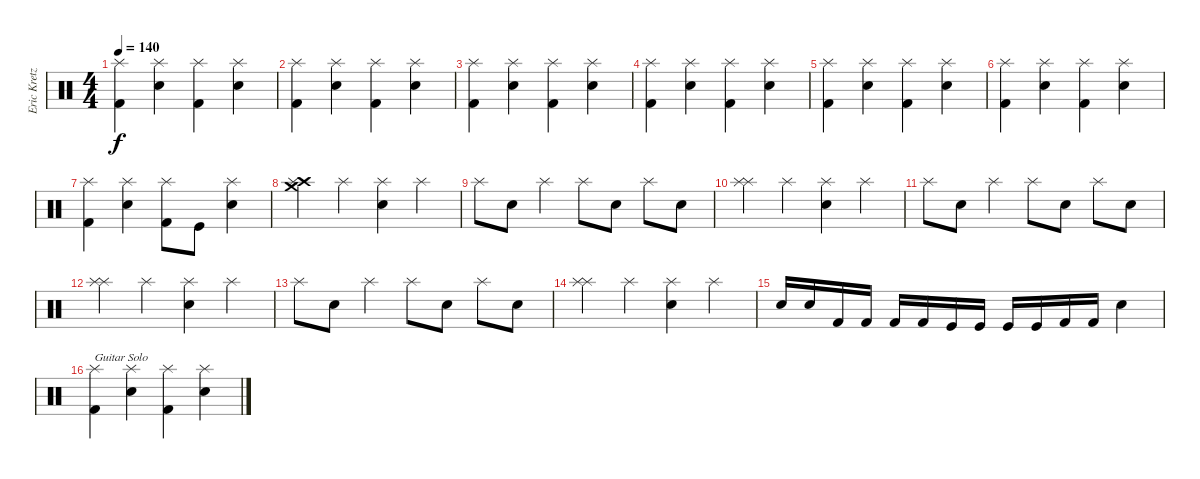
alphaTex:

\track ("Eric Kretz" "Eric Kretz") {instrument percussion}
\staff {score}
\articulation defaults
\ts (4 4)
\tempo 140
\clef neutral
\ks c
("Splash (hit)" "Kick (hit) 2").4{dy f} ("Splash (hit)" "Snare (hit) 2").4 ("Splash (hit)" "Kick (hit) 2").4 ("Splash (hit)" "Snare (hit) 2").4 |
("Kick (hit) 2" "Splash (hit)").4 ("Snare (hit) 2" "Splash (hit)").4 ("Kick (hit) 2" "Splash (hit)").4 ("Snare (hit) 2" "Splash (hit)").4 |
("Splash (hit)" "Kick (hit) 2").4 ("Splash (hit)" "Snare (hit) 2").4 ("Splash (hit)" "Kick (hit) 2").4 ("Splash (hit)" "Snare (hit) 2").4 |
("Kick (hit) 2" "Splash (hit)").4 ("Snare (hit) 2" "Splash (hit)").4 ("Kick (hit) 2" "Splash (hit)").4 ("Snare (hit) 2" "Splash (hit)").4 |
("Splash (hit)" "Kick (hit) 2").4 ("Splash (hit)" "Snare (hit) 2").4 ("Splash (hit)" "Kick (hit) 2").4 ("Splash (hit)" "Snare (hit) 2").4 |
("Kick (hit) 2" "Splash (hit)").4 ("Snare (hit) 2" "Splash (hit)").4 ("Kick (hit) 2" "Splash (hit)").4 ("Snare (hit) 2" "Splash (hit)").4 |
("Splash (hit)" "Kick (hit) 2").4 ("Splash (hit)" "Snare (hit) 2").4 ("Splash (hit)" "Kick (hit) 2").8 "Kick (hit)".8 ("Splash (hit)" "Snare (hit) 2").4 |
("Crash high (hit)" "Crash medium (hit)" "Splash (hit)").4 "Splash (hit)".4 ("Splash (hit)" "Snare (hit) 2").4 "Splash (hit)".4 |
"Splash (hit)".8 "Snare (hit) 2".8 "Splash (hit)".4 "Splash (hit)".8 "Snare (hit) 2".8 "Splash (hit)".8 "Snare (hit) 2".8 |
("Splash (hit)" "Splash (hit)").4 "Splash (hit)".4 ("Splash (hit)" "Snare (hit) 2").4 "Splash (hit)".4 |
"Splash (hit)".8 "Snare (hit) 2".8 "Splash (hit)".4 "Splash (hit)".8 "Snare (hit) 2".8 "Splash (hit)".8 "Snare (hit) 2".8 |
("Splash (hit)" "Splash (hit)").4 "Splash (hit)".4 ("Splash (hit)" "Snare (hit) 2").4 "Splash (hit)".4 |
"Splash (hit)".8 "Snare (hit) 2".8 "Splash (hit)".4 "Splash (hit)".8 "Snare (hit) 2".8 "Splash (hit)".8 "Snare (hit) 2".8 |
("Splash (hit)" "Splash (hit)").4 "Splash (hit)".4 ("Splash (hit)" "Snare (hit) 2").4 "Splash (hit)".4 |
"Snare (hit) 2".16 "Snare (hit) 2".16 "Kick (hit) 2".16 "Kick (hit) 2".16 "Kick (hit) 2".16 "Kick (hit) 2".16 "Kick (hit)".16 "Kick (hit)".16 "Kick (hit)".16 "Kick (hit)".16 "Kick (hit) 2".16 "Kick (hit) 2".16 "Snare (hit) 2".4 |
("Kick (hit) 2" "Splash (hit)").4{txt "Guitar Solo"} ("Snare (hit) 2" "Splash (hit)").4 ("Kick (hit) 2" "Splash (hit)").4 ("Snare (hit) 2" "Splash (hit)").4
